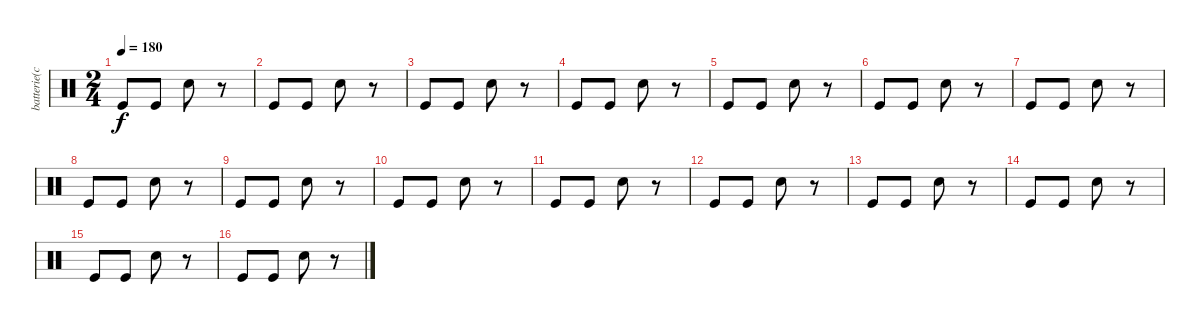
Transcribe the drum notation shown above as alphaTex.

\track ("batterie(chip)" "batterie(c") {instrument percussion}
\staff {score}
\articulation defaults
\ts (2 4)
\tempo 180
\clef neutral
\ks c "Kick (hit)".8{dy f} "Kick (hit)".8 "Snare (hit) 2".8
r.8 |
"Kick (hit)".8 "Kick (hit)".8 "Snare (hit) 2".8 r.8 |
"Kick (hit)".8 "Kick (hit)".8 "Snare (hit) 2".8 r.8 |
"Kick (hit)".8 "Kick (hit)".8 "Snare (hit) 2".8 r.8 |
"Kick (hit)".8 "Kick (hit)".8 "Snare (hit) 2".8 r.8 |
"Kick (hit)".8 "Kick (hit)".8 "Snare (hit) 2".8 r.8 |
"Kick (hit)".8 "Kick (hit)".8 "Snare (hit) 2".8 r.8 |
"Kick (hit)".8 "Kick (hit)".8 "Snare (hit) 2".8 r.8 |
"Kick (hit)".8 "Kick (hit)".8 "Snare (hit) 2".8 r.8 |
"Kick (hit)".8 "Kick (hit)".8 "Snare (hit) 2".8 r.8 |
"Kick (hit)".8 "Kick (hit)".8 "Snare (hit) 2".8 r.8 |
"Kick (hit)".8 "Kick (hit)".8 "Snare (hit) 2".8 r.8 |
"Kick (hit)".8 "Kick (hit)".8 "Snare (hit) 2".8 r.8 |
"Kick (hit)".8 "Kick (hit)".8 "Snare (hit) 2".8 r.8 |
"Kick (hit)".8 "Kick (hit)".8 "Snare (hit) 2".8 r.8 |
"Kick (hit)".8 "Kick (hit)".8 "Snare (hit) 2".8 r.8
